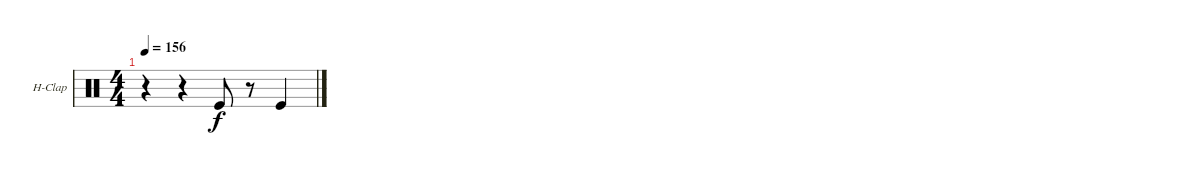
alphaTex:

\defaultSystemsLayout 4
\bracketExtendMode groupsimilarinstruments
\firstSystemTrackNameOrientation horizontal
\otherSystemsTrackNameOrientation horizontal
\track ("Hand Clap" "H-Clap") {instrument percussion}
\staff {score}
\articulation defaults
\ts (4 4)
\tempo 156
\clef neutral
\ks c
r.4{dy f} r.4 "Kick (hit)".8 r.8 "Kick (hit)".4
